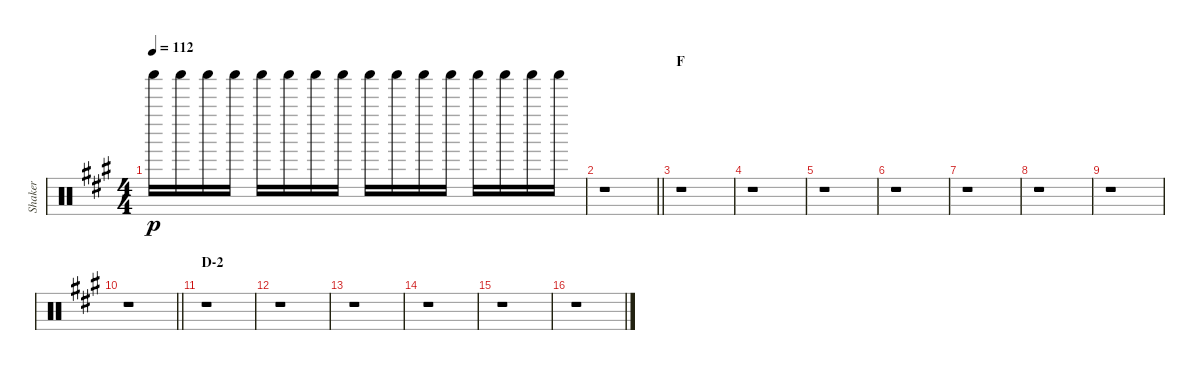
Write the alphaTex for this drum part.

\track ("Shaker" "Shaker") {instrument percussion}
\staff {score}
\articulation defaults
\ts (4 4)
\tempo 112
\clef neutral
\ks a "Shaker (hit)".16{dy p} "Shaker (hit)".16 "Shaker (hit)".16 "Shaker (hit)".16 "Shaker (hit)".16 "Shaker (hit)".16 "Shaker (hit)".16 "Shaker (hit)".16 "Shaker (hit)".16 "Shaker (hit)".16 "Shaker (hit)".16 "Shaker (hit)".16 "Shaker (hit)".16 "Shaker (hit)".16 "Shaker (hit)".16 "Shaker (hit)".16
|
\barLineRight lightlight
r.1 |
\section ("" "F")
r.1 |
r.1 |
r.1 |
r.1 |
r.1 |
r.1 |
r.1 |
\barLineRight lightlight
r.1 |
\section ("" "D-2")
r.1 |
r.1 |
r.1 |
r.1 |
r.1 |
r.1
